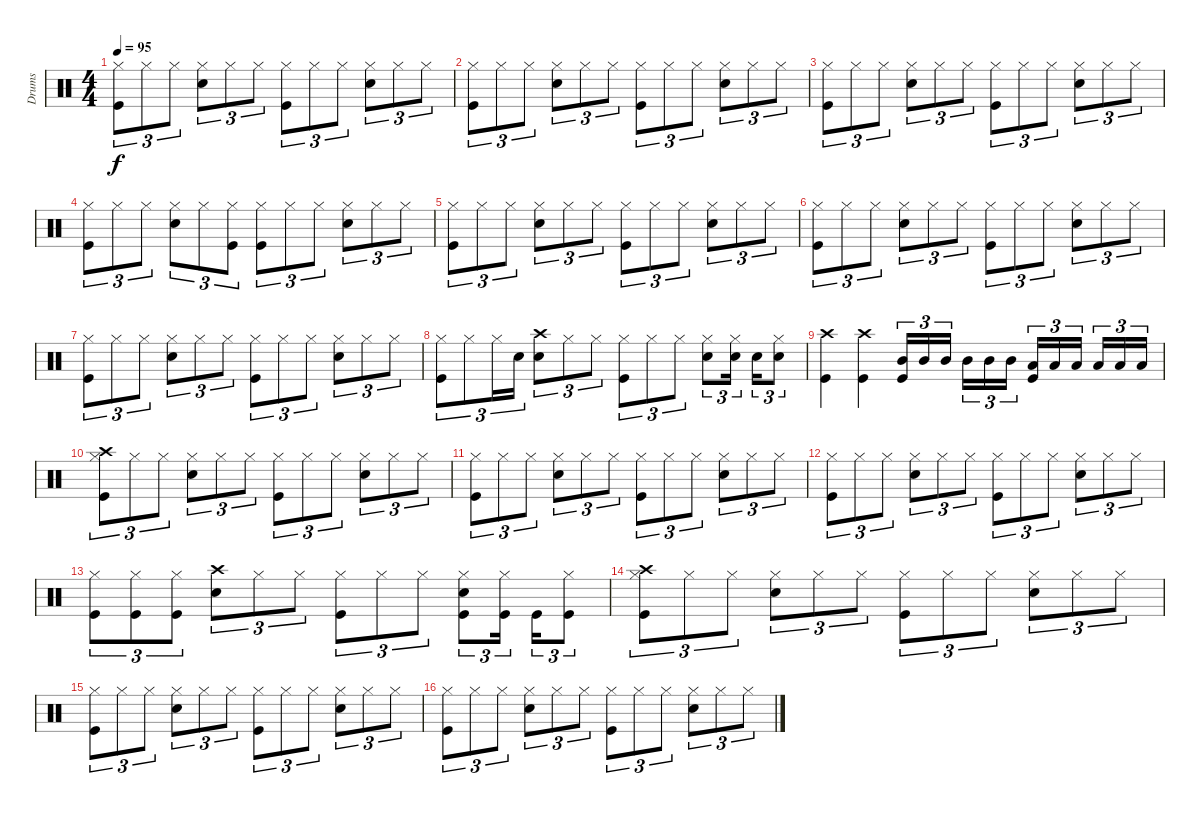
\track ("Drums" "Drums") {instrument percussion}
\staff {score}
\articulation defaults
\ts (4 4)
\tempo 95
\clef neutral
\ks c
("Hi-Hat (closed)" "Kick (hit)").8{tu (3 2) dy f} "Hi-Hat (closed)".8{tu (3 2)} "Hi-Hat (closed)".8{tu (3 2)} ("Hi-Hat (closed)" "Electric Snare (hit)").8{tu (3 2)} "Hi-Hat (closed)".8{tu (3 2)} "Hi-Hat (closed)".8{tu (3 2)} ("Hi-Hat (closed)" "Kick (hit)").8{tu (3 2)} "Hi-Hat (closed)".8{tu (3 2)} "Hi-Hat (closed)".8{tu (3 2)} ("Hi-Hat (closed)" "Electric Snare (hit)").8{tu (3 2)} "Hi-Hat (closed)".8{tu (3 2)} "Hi-Hat (closed)".8{tu (3 2)} |
("Hi-Hat (closed)" "Kick (hit)").8{tu (3 2)} "Hi-Hat (closed)".8{tu (3 2)} "Hi-Hat (closed)".8{tu (3 2)} ("Hi-Hat (closed)" "Electric Snare (hit)").8{tu (3 2)} "Hi-Hat (closed)".8{tu (3 2)} "Hi-Hat (closed)".8{tu (3 2)} ("Hi-Hat (closed)" "Kick (hit)").8{tu (3 2)} "Hi-Hat (closed)".8{tu (3 2)} "Hi-Hat (closed)".8{tu (3 2)} ("Hi-Hat (closed)" "Electric Snare (hit)").8{tu (3 2)} "Hi-Hat (closed)".8{tu (3 2)} "Hi-Hat (closed)".8{tu (3 2)} |
("Hi-Hat (closed)" "Kick (hit)").8{tu (3 2)} "Hi-Hat (closed)".8{tu (3 2)} "Hi-Hat (closed)".8{tu (3 2)} ("Hi-Hat (closed)" "Electric Snare (hit)").8{tu (3 2)} "Hi-Hat (closed)".8{tu (3 2)} "Hi-Hat (closed)".8{tu (3 2)} ("Hi-Hat (closed)" "Kick (hit)").8{tu (3 2)} "Hi-Hat (closed)".8{tu (3 2)} "Hi-Hat (closed)".8{tu (3 2)} ("Hi-Hat (closed)" "Electric Snare (hit)").8{tu (3 2)} "Hi-Hat (closed)".8{tu (3 2)} "Hi-Hat (closed)".8{tu (3 2)} |
("Hi-Hat (closed)" "Kick (hit)").8{tu (3 2)} "Hi-Hat (closed)".8{tu (3 2)} "Hi-Hat (closed)".8{tu (3 2)} ("Hi-Hat (closed)" "Electric Snare (hit)").8{tu (3 2)} "Hi-Hat (closed)".8{tu (3 2)} ("Hi-Hat (closed)" "Kick (hit)").8{tu (3 2)} ("Hi-Hat (closed)" "Kick (hit)").8{tu (3 2)} "Hi-Hat (closed)".8{tu (3 2)} "Hi-Hat (closed)".8{tu (3 2)} ("Hi-Hat (closed)" "Electric Snare (hit)").8{tu (3 2)} "Hi-Hat (closed)".8{tu (3 2)} "Hi-Hat (closed)".8{tu (3 2)} |
("Hi-Hat (closed)" "Kick (hit)").8{tu (3 2)} "Hi-Hat (closed)".8{tu (3 2)} "Hi-Hat (closed)".8{tu (3 2)} ("Hi-Hat (closed)" "Electric Snare (hit)").8{tu (3 2)} "Hi-Hat (closed)".8{tu (3 2)} "Hi-Hat (closed)".8{tu (3 2)} ("Hi-Hat (closed)" "Kick (hit)").8{tu (3 2)} "Hi-Hat (closed)".8{tu (3 2)} "Hi-Hat (closed)".8{tu (3 2)} ("Hi-Hat (closed)" "Electric Snare (hit)").8{tu (3 2)} "Hi-Hat (closed)".8{tu (3 2)} "Hi-Hat (closed)".8{tu (3 2)} |
("Hi-Hat (closed)" "Kick (hit)").8{tu (3 2)} "Hi-Hat (closed)".8{tu (3 2)} "Hi-Hat (closed)".8{tu (3 2)} ("Hi-Hat (closed)" "Electric Snare (hit)").8{tu (3 2)} "Hi-Hat (closed)".8{tu (3 2)} "Hi-Hat (closed)".8{tu (3 2)} ("Hi-Hat (closed)" "Kick (hit)").8{tu (3 2)} "Hi-Hat (closed)".8{tu (3 2)} "Hi-Hat (closed)".8{tu (3 2)} ("Hi-Hat (closed)" "Electric Snare (hit)").8{tu (3 2)} "Hi-Hat (closed)".8{tu (3 2)} "Hi-Hat (closed)".8{tu (3 2)} |
("Hi-Hat (closed)" "Kick (hit)").8{tu (3 2)} "Hi-Hat (closed)".8{tu (3 2)} "Hi-Hat (closed)".8{tu (3 2)} ("Hi-Hat (closed)" "Electric Snare (hit)").8{tu (3 2)} "Hi-Hat (closed)".8{tu (3 2)} "Hi-Hat (closed)".8{tu (3 2)} ("Hi-Hat (closed)" "Kick (hit)").8{tu (3 2)} "Hi-Hat (closed)".8{tu (3 2)} "Hi-Hat (closed)".8{tu (3 2)} ("Hi-Hat (closed)" "Electric Snare (hit)").8{tu (3 2)} "Hi-Hat (closed)".8{tu (3 2)} "Hi-Hat (closed)".8{tu (3 2)} |
("Hi-Hat (closed)" "Kick (hit)").8{tu (3 2)} "Hi-Hat (closed)".8{tu (3 2)} "Hi-Hat (closed)".16{tu (3 2)} "Electric Snare (hit)".16{tu (3 2)} ("Crash high (hit)" "Electric Snare (hit)").8{tu (3 2)} "Hi-Hat (closed)".8{tu (3 2)} "Hi-Hat (closed)".8{tu (3 2)} ("Hi-Hat (closed)" "Kick (hit)").8{tu (3 2)} "Hi-Hat (closed)".8{tu (3 2)} "Hi-Hat (closed)".8{tu (3 2)} ("Hi-Hat (closed)" "Electric Snare (hit)").8{tu (3 2)} ("Hi-Hat (closed)" "Electric Snare (hit)").16{tu (3 2)} "Electric Snare (hit)".16{tu (3 2)} ("Hi-Hat (closed)" "Electric Snare (hit)").8{tu (3 2)} |
("Crash high (hit)" "Kick (hit)").4 ("Crash high (hit)" "Kick (hit)").4 ("Mid Tom (hit)" "Kick (hit)").16{tu (3 2)} "Mid Tom (hit)".16{tu (3 2)} "Mid Tom (hit)".16{tu (3 2)} "Mid Tom (hit)".16{tu (3 2)} "Mid Tom (hit)".16{tu (3 2)} "Mid Tom (hit)".16{tu (3 2)} ("Low Tom (hit)" "Kick (hit)").16{tu (3 2)} "Low Tom (hit)".16{tu (3 2)} "Low Tom (hit)".16{tu (3 2)} "Low Tom (hit)".16{tu (3 2)} "Low Tom (hit)".16{tu (3 2)} "Low Tom (hit)".16{tu (3 2)} |
("Crash high (hit)" "Hi-Hat (closed)" "Kick (hit)").8{tu (3 2)} "Hi-Hat (closed)".8{tu (3 2)} "Hi-Hat (closed)".8{tu (3 2)} ("Hi-Hat (closed)" "Electric Snare (hit)").8{tu (3 2)} "Hi-Hat (closed)".8{tu (3 2)} "Hi-Hat (closed)".8{tu (3 2)} ("Hi-Hat (closed)" "Kick (hit)").8{tu (3 2)} "Hi-Hat (closed)".8{tu (3 2)} "Hi-Hat (closed)".8{tu (3 2)} ("Hi-Hat (closed)" "Electric Snare (hit)").8{tu (3 2)} "Hi-Hat (closed)".8{tu (3 2)} "Hi-Hat (closed)".8{tu (3 2)} |
("Hi-Hat (closed)" "Kick (hit)").8{tu (3 2)} "Hi-Hat (closed)".8{tu (3 2)} "Hi-Hat (closed)".8{tu (3 2)} ("Hi-Hat (closed)" "Electric Snare (hit)").8{tu (3 2)} "Hi-Hat (closed)".8{tu (3 2)} "Hi-Hat (closed)".8{tu (3 2)} ("Hi-Hat (closed)" "Kick (hit)").8{tu (3 2)} "Hi-Hat (closed)".8{tu (3 2)} "Hi-Hat (closed)".8{tu (3 2)} ("Hi-Hat (closed)" "Electric Snare (hit)").8{tu (3 2)} "Hi-Hat (closed)".8{tu (3 2)} "Hi-Hat (closed)".8{tu (3 2)} |
("Hi-Hat (closed)" "Kick (hit)").8{tu (3 2)} "Hi-Hat (closed)".8{tu (3 2)} "Hi-Hat (closed)".8{tu (3 2)} ("Hi-Hat (closed)" "Electric Snare (hit)").8{tu (3 2)} "Hi-Hat (closed)".8{tu (3 2)} "Hi-Hat (closed)".8{tu (3 2)} ("Hi-Hat (closed)" "Kick (hit)").8{tu (3 2)} "Hi-Hat (closed)".8{tu (3 2)} "Hi-Hat (closed)".8{tu (3 2)} ("Hi-Hat (closed)" "Electric Snare (hit)").8{tu (3 2)} "Hi-Hat (closed)".8{tu (3 2)} "Hi-Hat (closed)".8{tu (3 2)} |
("Hi-Hat (closed)" "Kick (hit)").8{tu (3 2)} ("Hi-Hat (closed)" "Kick (hit)").8{tu (3 2)} ("Hi-Hat (closed)" "Kick (hit)").8{tu (3 2)} ("Crash high (hit)" "Electric Snare (hit)").8{tu (3 2)} "Hi-Hat (closed)".8{tu (3 2)} "Hi-Hat (closed)".8{tu (3 2)} ("Hi-Hat (closed)" "Kick (hit)").8{tu (3 2)} "Hi-Hat (closed)".8{tu (3 2)} "Hi-Hat (closed)".8{tu (3 2)} ("Hi-Hat (closed)" "Electric Snare (hit)" "Kick (hit)").8{tu (3 2)} ("Hi-Hat (closed)" "Kick (hit)").16{tu (3 2)} "Kick (hit)".16{tu (3 2)} ("Hi-Hat (closed)" "Kick (hit)").8{tu (3 2)} |
("Crash high (hit)" "Hi-Hat (closed)" "Kick (hit)").8{tu (3 2)} "Hi-Hat (closed)".8{tu (3 2)} "Hi-Hat (closed)".8{tu (3 2)} ("Hi-Hat (closed)" "Electric Snare (hit)").8{tu (3 2)} "Hi-Hat (closed)".8{tu (3 2)} "Hi-Hat (closed)".8{tu (3 2)} ("Hi-Hat (closed)" "Kick (hit)").8{tu (3 2)} "Hi-Hat (closed)".8{tu (3 2)} "Hi-Hat (closed)".8{tu (3 2)} ("Hi-Hat (closed)" "Electric Snare (hit)").8{tu (3 2)} "Hi-Hat (closed)".8{tu (3 2)} "Hi-Hat (closed)".8{tu (3 2)} |
("Hi-Hat (closed)" "Kick (hit)").8{tu (3 2)} "Hi-Hat (closed)".8{tu (3 2)} "Hi-Hat (closed)".8{tu (3 2)} ("Hi-Hat (closed)" "Electric Snare (hit)").8{tu (3 2)} "Hi-Hat (closed)".8{tu (3 2)} "Hi-Hat (closed)".8{tu (3 2)} ("Hi-Hat (closed)" "Kick (hit)").8{tu (3 2)} "Hi-Hat (closed)".8{tu (3 2)} "Hi-Hat (closed)".8{tu (3 2)} ("Hi-Hat (closed)" "Electric Snare (hit)").8{tu (3 2)} "Hi-Hat (closed)".8{tu (3 2)} "Hi-Hat (closed)".8{tu (3 2)} |
("Hi-Hat (closed)" "Kick (hit)").8{tu (3 2)} "Hi-Hat (closed)".8{tu (3 2)} "Hi-Hat (closed)".8{tu (3 2)} ("Hi-Hat (closed)" "Electric Snare (hit)").8{tu (3 2)} "Hi-Hat (closed)".8{tu (3 2)} "Hi-Hat (closed)".8{tu (3 2)} ("Hi-Hat (closed)" "Kick (hit)").8{tu (3 2)} "Hi-Hat (closed)".8{tu (3 2)} "Hi-Hat (closed)".8{tu (3 2)} ("Hi-Hat (closed)" "Electric Snare (hit)").8{tu (3 2)} "Hi-Hat (closed)".8{tu (3 2)} "Hi-Hat (closed)".8{tu (3 2)}
